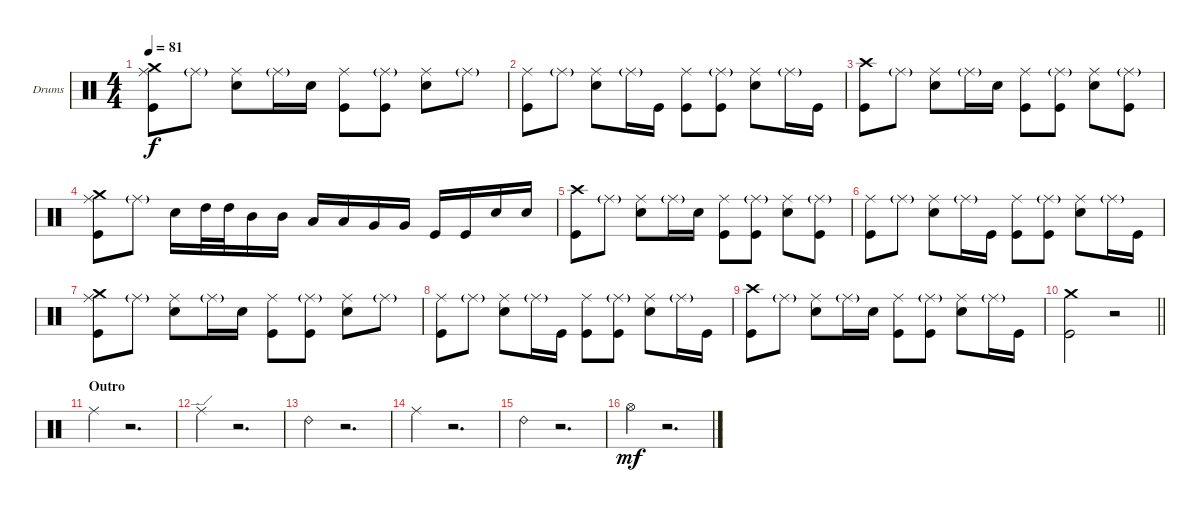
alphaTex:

\bracketExtendMode groupsimilarinstruments
\firstSystemTrackNameOrientation horizontal
\otherSystemsTrackNameOrientation horizontal
\track ("Batteria" "Drums") {instrument percussion}
\staff {score}
\articulation defaults
\ts (4 4)
\tempo 81
\clef neutral
\ks c
("Kick (hit)" "Ride (middle)" "Crash medium (hit)").8{dy f} "Ride (middle)"{g}.8 ("Snare (hit) 2" "Ride (middle)").8 "Ride (middle)"{g}.16 "Snare (hit) 2".16 ("Ride (middle)" "Kick (hit)").8 ("Ride (middle)"{g} "Kick (hit)").8 ("Ride (middle)" "Snare (hit) 2").8 "Ride (middle)"{g}.8 |
("Kick (hit)" "Ride (middle)").8 "Ride (middle)"{g}.8 ("Snare (hit) 2" "Ride (middle)").8 "Ride (middle)"{g}.16 "Kick (hit)".16 ("Ride (middle)" "Kick (hit)").8 ("Ride (middle)"{g} "Kick (hit)").8 ("Ride (middle)" "Snare (hit) 2").8 "Ride (middle)"{g}.16 "Kick (hit)".16 |
("Kick (hit)" "Crash high (hit)").8 "Ride (middle)"{g}.8 ("Snare (hit) 2" "Ride (middle)").8 "Ride (middle)"{g}.16 "Snare (hit) 2".16 ("Ride (middle)" "Kick (hit)").8 ("Ride (middle)"{g} "Kick (hit)").8 ("Ride (middle)" "Snare (hit) 2").8 ("Ride (middle)"{g} "Kick (hit)").8 |
("Kick (hit)" "Ride (middle)" "Crash medium (hit)").8 "Ride (middle)"{g}.8 "Snare (hit) 2".16 "High Tom (hit)".32 "High Tom (hit)".32 "Mid Tom (hit)".16 "Mid Tom (hit)".16 "Low Tom (hit)".16 "Low Tom (hit)".16 "Very Low Tom (hit)".16 "Very Low Tom (hit)".16 "Kick (hit)".16 "Kick (hit)".16 "Snare (hit) 2".16 "Snare (hit) 2".16 |
("Kick (hit)" "Crash high (hit)").8 "Ride (middle)"{g}.8 ("Snare (hit) 2" "Ride (middle)").8 "Ride (middle)"{g}.16 "Snare (hit) 2".16 ("Ride (middle)" "Kick (hit)").8 ("Ride (middle)"{g} "Kick (hit)").8 ("Ride (middle)" "Snare (hit) 2").8 ("Ride (middle)"{g} "Kick (hit)").8 |
("Kick (hit)" "Ride (middle)").8 "Ride (middle)"{g}.8 ("Snare (hit) 2" "Ride (middle)").8 "Ride (middle)"{g}.16 "Kick (hit)".16 ("Ride (middle)" "Kick (hit)").8 ("Ride (middle)"{g} "Kick (hit)").8 ("Ride (middle)" "Snare (hit) 2").8 "Ride (middle)"{g}.16 "Kick (hit)".16 |
("Kick (hit)" "Ride (middle)" "Crash medium (hit)").8 "Ride (middle)"{g}.8 ("Snare (hit) 2" "Ride (middle)").8 "Ride (middle)"{g}.16 "Snare (hit) 2".16 ("Ride (middle)" "Kick (hit)").8 ("Ride (middle)"{g} "Kick (hit)").8 ("Ride (middle)" "Snare (hit) 2").8 "Ride (middle)"{g}.8 |
("Kick (hit)" "Ride (middle)").8 "Ride (middle)"{g}.8 ("Snare (hit) 2" "Ride (middle)").8 "Ride (middle)"{g}.16 "Kick (hit)".16 ("Ride (middle)" "Kick (hit)").8 ("Ride (middle)"{g} "Kick (hit)").8 ("Ride (middle)" "Snare (hit) 2").8 "Ride (middle)"{g}.16 "Kick (hit)".16 |
("Kick (hit)" "Crash high (hit)").8 "Ride (middle)"{g}.8 ("Snare (hit) 2" "Ride (middle)").8 "Ride (middle)"{g}.16 "Snare (hit) 2".16 ("Ride (middle)" "Kick (hit)").8 ("Ride (middle)"{g} "Kick (hit)").8 ("Ride (middle)" "Snare (hit) 2").8 "Ride (middle)"{g}.16 "Kick (hit)".16 |
\barLineRight lightlight
("Crash medium (hit)" "Kick (hit)").2 r.2 |
\section ("" "Outro")
"Ride (middle)".4 r.2{d} |
"Ride (edge)".4 r.2{d} |
"Ride (bell) 2".4 r.2{d} |
"Ride (middle)".4 r.2{d} |
"Ride (bell) 2".4 r.2{d} |
"Hi-Hat (open)".4{dy mf} r.2{d}
